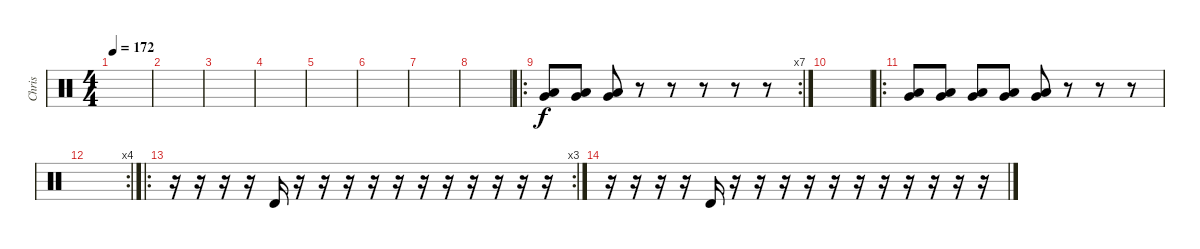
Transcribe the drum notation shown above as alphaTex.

\track ("Chris" "Chris") {instrument percussion}
\staff {score}
\articulation defaults
\ts (4 4)
\tempo 172
\clef neutral
\ks c
|
|
|
|
|
|
|
|
\ro
\rc 7
("Very Low Tom (hit)" "Low Floor Tom (hit)").8 ("Very Low Tom (hit)" "Low Floor Tom (hit)").8 ("Very Low Tom (hit)" "Low Floor Tom (hit)").8 r.8 r.8 r.8 r.8 r.8 |
|
\ro
("Very Low Tom (hit)" "Low Floor Tom (hit)").8 ("Very Low Tom (hit)" "Low Floor Tom (hit)").8 ("Very Low Tom (hit)" "Low Floor Tom (hit)").8 ("Very Low Tom (hit)" "Low Floor Tom (hit)").8 ("Very Low Tom (hit)" "Low Floor Tom (hit)").8 r.8 r.8 r.8 |
\rc 4
|
\ro
\rc 3
r.16 r.16 r.16 r.16 "Timbale high (hit)".16 r.16 r.16 r.16 r.16 r.16 r.16 r.16 r.16 r.16 r.16 r.16 |
r.16 r.16 r.16 r.16 "Timbale high (hit)".16 r.16 r.16 r.16 r.16 r.16 r.16 r.16 r.16 r.16 r.16 r.16
